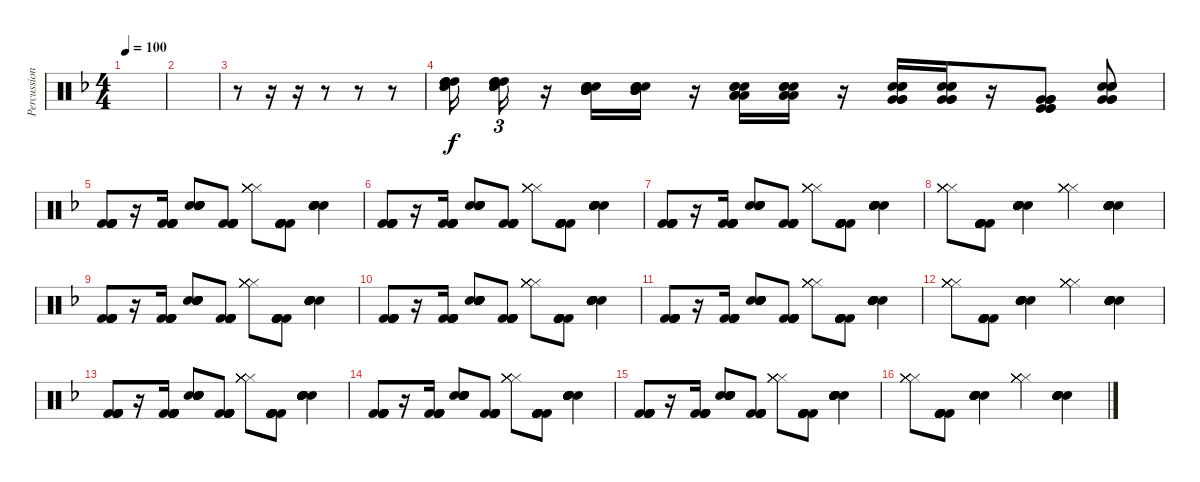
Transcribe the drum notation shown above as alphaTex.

\track ("Percussion" "Percussion") {instrument percussion}
\staff {score}
\articulation defaults
\ts (4 4)
\tempo 100
\clef neutral
\ks dminor
|
|
r.8 r.16 r.16 r.8 r.8 r.8 |
("Electric Snare (hit)" "Electric Snare (hit)" "Electric Snare (hit)" "High Tom (hit)" "High Tom (hit)" "High Tom (hit)").16 ("Electric Snare (hit)" "Electric Snare (hit)" "Electric Snare (hit)" "High Tom (hit)" "High Tom (hit)" "High Tom (hit)").16{tu (3 2)} r.16 ("Electric Snare (hit)" "Electric Snare (hit)" "Electric Snare (hit)" "Mid Tom (hit)" "Mid Tom (hit)" "Mid Tom (hit)").16 ("Electric Snare (hit)" "Electric Snare (hit)" "Electric Snare (hit)" "Mid Tom (hit)" "Mid Tom (hit)" "Mid Tom (hit)").16 r.16 ("Electric Snare (hit)" "Electric Snare (hit)" "Electric Snare (hit)" "Low Tom (hit)" "Low Tom (hit)" "Low Tom (hit)").16 ("Electric Snare (hit)" "Electric Snare (hit)" "Electric Snare (hit)" "Low Tom (hit)" "Low Tom (hit)" "Low Tom (hit)").16 r.16 ("Electric Snare (hit)" "Electric Snare (hit)" "Electric Snare (hit)" "Very Low Tom (hit)" "Very Low Tom (hit)" "Very Low Tom (hit)").16 ("Electric Snare (hit)" "Electric Snare (hit)" "Electric Snare (hit)" "Very Low Tom (hit)" "Very Low Tom (hit)" "Very Low Tom (hit)").16 r.16 ("Kick (hit)" "Kick (hit)" "Kick (hit)" "Very Low Tom (hit)" "Very Low Tom (hit)" "Very Low Tom (hit)").8 ("Snare (hit) 2" "Snare (hit) 2" "Snare (hit) 2" "Very Low Tom (hit)" "Very Low Tom (hit)" "Very Low Tom (hit)").8 |
("Kick (hit) 2" "Kick (hit) 2" "Kick (hit) 2" "Kick (hit) 2" "Kick (hit) 2" "Kick (hit) 2").8 r.16 ("Kick (hit) 2" "Kick (hit) 2" "Kick (hit) 2" "Kick (hit) 2" "Kick (hit) 2" "Kick (hit) 2").16 ("Electric Snare (hit)" "Electric Snare (hit)" "Electric Snare (hit)" "Electric Snare (hit)" "Electric Snare (hit)" "Electric Snare (hit)").8 ("Kick (hit) 2" "Kick (hit) 2" "Kick (hit) 2" "Kick (hit) 2" "Kick (hit) 2" "Kick (hit) 2").8 ("Hi-Hat (closed)" "Hi-Hat (closed)" "Hi-Hat (closed)" "Hi-Hat (closed)" "Hi-Hat (closed)" "Hi-Hat (closed)").8 ("Kick (hit) 2" "Kick (hit) 2" "Kick (hit) 2" "Kick (hit) 2" "Kick (hit) 2" "Kick (hit) 2").8 ("Electric Snare (hit)" "Electric Snare (hit)" "Electric Snare (hit)" "Electric Snare (hit)" "Electric Snare (hit)" "Electric Snare (hit)").4 |
("Kick (hit) 2" "Kick (hit) 2" "Kick (hit) 2" "Kick (hit) 2" "Kick (hit) 2" "Kick (hit) 2").8 r.16 ("Kick (hit) 2" "Kick (hit) 2" "Kick (hit) 2" "Kick (hit) 2" "Kick (hit) 2" "Kick (hit) 2").16 ("Electric Snare (hit)" "Electric Snare (hit)" "Electric Snare (hit)" "Electric Snare (hit)" "Electric Snare (hit)" "Electric Snare (hit)").8 ("Kick (hit) 2" "Kick (hit) 2" "Kick (hit) 2" "Kick (hit) 2" "Kick (hit) 2" "Kick (hit) 2").8 ("Hi-Hat (closed)" "Hi-Hat (closed)" "Hi-Hat (closed)" "Hi-Hat (closed)" "Hi-Hat (closed)" "Hi-Hat (closed)").8 ("Kick (hit) 2" "Kick (hit) 2" "Kick (hit) 2" "Kick (hit) 2" "Kick (hit) 2" "Kick (hit) 2").8 ("Electric Snare (hit)" "Electric Snare (hit)" "Electric Snare (hit)" "Electric Snare (hit)" "Electric Snare (hit)" "Electric Snare (hit)").4 |
("Kick (hit) 2" "Kick (hit) 2" "Kick (hit) 2" "Kick (hit) 2" "Kick (hit) 2" "Kick (hit) 2").8 r.16 ("Kick (hit) 2" "Kick (hit) 2" "Kick (hit) 2" "Kick (hit) 2" "Kick (hit) 2" "Kick (hit) 2").16 ("Electric Snare (hit)" "Electric Snare (hit)" "Electric Snare (hit)" "Electric Snare (hit)" "Electric Snare (hit)" "Electric Snare (hit)").8 ("Kick (hit) 2" "Kick (hit) 2" "Kick (hit) 2" "Kick (hit) 2" "Kick (hit) 2" "Kick (hit) 2").8 ("Hi-Hat (closed)" "Hi-Hat (closed)" "Hi-Hat (closed)" "Hi-Hat (closed)" "Hi-Hat (closed)" "Hi-Hat (closed)").8 ("Kick (hit) 2" "Kick (hit) 2" "Kick (hit) 2" "Kick (hit) 2" "Kick (hit) 2" "Kick (hit) 2").8 ("Electric Snare (hit)" "Electric Snare (hit)" "Electric Snare (hit)" "Electric Snare (hit)" "Electric Snare (hit)" "Electric Snare (hit)").4 |
("Hi-Hat (closed)" "Hi-Hat (closed)" "Hi-Hat (closed)" "Hi-Hat (closed)" "Hi-Hat (closed)" "Hi-Hat (closed)").8 ("Kick (hit) 2" "Kick (hit) 2" "Kick (hit) 2" "Kick (hit) 2" "Kick (hit) 2" "Kick (hit) 2").8 ("Electric Snare (hit)" "Electric Snare (hit)" "Electric Snare (hit)" "Electric Snare (hit)" "Electric Snare (hit)" "Electric Snare (hit)").4 ("Hi-Hat (closed)" "Hi-Hat (closed)" "Hi-Hat (closed)" "Hi-Hat (closed)" "Hi-Hat (closed)" "Hi-Hat (closed)").4 ("Electric Snare (hit)" "Electric Snare (hit)" "Electric Snare (hit)" "Electric Snare (hit)" "Electric Snare (hit)" "Electric Snare (hit)").4 |
("Kick (hit) 2" "Kick (hit) 2" "Kick (hit) 2" "Kick (hit) 2" "Kick (hit) 2" "Kick (hit) 2").8 r.16 ("Kick (hit) 2" "Kick (hit) 2" "Kick (hit) 2" "Kick (hit) 2" "Kick (hit) 2" "Kick (hit) 2").16 ("Electric Snare (hit)" "Electric Snare (hit)" "Electric Snare (hit)" "Electric Snare (hit)" "Electric Snare (hit)" "Electric Snare (hit)").8 ("Kick (hit) 2" "Kick (hit) 2" "Kick (hit) 2" "Kick (hit) 2" "Kick (hit) 2" "Kick (hit) 2").8 ("Hi-Hat (closed)" "Hi-Hat (closed)" "Hi-Hat (closed)" "Hi-Hat (closed)" "Hi-Hat (closed)" "Hi-Hat (closed)").8 ("Kick (hit) 2" "Kick (hit) 2" "Kick (hit) 2" "Kick (hit) 2" "Kick (hit) 2" "Kick (hit) 2").8 ("Electric Snare (hit)" "Electric Snare (hit)" "Electric Snare (hit)" "Electric Snare (hit)" "Electric Snare (hit)" "Electric Snare (hit)").4 |
("Kick (hit) 2" "Kick (hit) 2" "Kick (hit) 2" "Kick (hit) 2" "Kick (hit) 2" "Kick (hit) 2").8 r.16 ("Kick (hit) 2" "Kick (hit) 2" "Kick (hit) 2" "Kick (hit) 2" "Kick (hit) 2" "Kick (hit) 2").16 ("Electric Snare (hit)" "Electric Snare (hit)" "Electric Snare (hit)" "Electric Snare (hit)" "Electric Snare (hit)" "Electric Snare (hit)").8 ("Kick (hit) 2" "Kick (hit) 2" "Kick (hit) 2" "Kick (hit) 2" "Kick (hit) 2" "Kick (hit) 2").8 ("Hi-Hat (closed)" "Hi-Hat (closed)" "Hi-Hat (closed)" "Hi-Hat (closed)" "Hi-Hat (closed)" "Hi-Hat (closed)").8 ("Kick (hit) 2" "Kick (hit) 2" "Kick (hit) 2" "Kick (hit) 2" "Kick (hit) 2" "Kick (hit) 2").8 ("Electric Snare (hit)" "Electric Snare (hit)" "Electric Snare (hit)" "Electric Snare (hit)" "Electric Snare (hit)" "Electric Snare (hit)").4 |
("Kick (hit) 2" "Kick (hit) 2" "Kick (hit) 2" "Kick (hit) 2" "Kick (hit) 2" "Kick (hit) 2").8 r.16 ("Kick (hit) 2" "Kick (hit) 2" "Kick (hit) 2" "Kick (hit) 2" "Kick (hit) 2" "Kick (hit) 2").16 ("Electric Snare (hit)" "Electric Snare (hit)" "Electric Snare (hit)" "Electric Snare (hit)" "Electric Snare (hit)" "Electric Snare (hit)").8 ("Kick (hit) 2" "Kick (hit) 2" "Kick (hit) 2" "Kick (hit) 2" "Kick (hit) 2" "Kick (hit) 2").8 ("Hi-Hat (closed)" "Hi-Hat (closed)" "Hi-Hat (closed)" "Hi-Hat (closed)" "Hi-Hat (closed)" "Hi-Hat (closed)").8 ("Kick (hit) 2" "Kick (hit) 2" "Kick (hit) 2" "Kick (hit) 2" "Kick (hit) 2" "Kick (hit) 2").8 ("Electric Snare (hit)" "Electric Snare (hit)" "Electric Snare (hit)" "Electric Snare (hit)" "Electric Snare (hit)" "Electric Snare (hit)").4 |
("Hi-Hat (closed)" "Hi-Hat (closed)" "Hi-Hat (closed)" "Hi-Hat (closed)" "Hi-Hat (closed)" "Hi-Hat (closed)").8 ("Kick (hit) 2" "Kick (hit) 2" "Kick (hit) 2" "Kick (hit) 2" "Kick (hit) 2" "Kick (hit) 2").8 ("Electric Snare (hit)" "Electric Snare (hit)" "Electric Snare (hit)" "Electric Snare (hit)" "Electric Snare (hit)" "Electric Snare (hit)").4 ("Hi-Hat (closed)" "Hi-Hat (closed)" "Hi-Hat (closed)" "Hi-Hat (closed)" "Hi-Hat (closed)" "Hi-Hat (closed)").4 ("Electric Snare (hit)" "Electric Snare (hit)" "Electric Snare (hit)" "Electric Snare (hit)" "Electric Snare (hit)" "Electric Snare (hit)").4 |
("Kick (hit) 2" "Kick (hit) 2" "Kick (hit) 2" "Kick (hit) 2" "Kick (hit) 2" "Kick (hit) 2").8 r.16 ("Kick (hit) 2" "Kick (hit) 2" "Kick (hit) 2" "Kick (hit) 2" "Kick (hit) 2" "Kick (hit) 2").16 ("Electric Snare (hit)" "Electric Snare (hit)" "Electric Snare (hit)" "Electric Snare (hit)" "Electric Snare (hit)" "Electric Snare (hit)").8 ("Kick (hit) 2" "Kick (hit) 2" "Kick (hit) 2" "Kick (hit) 2" "Kick (hit) 2" "Kick (hit) 2").8 ("Hi-Hat (closed)" "Hi-Hat (closed)" "Hi-Hat (closed)" "Hi-Hat (closed)" "Hi-Hat (closed)" "Hi-Hat (closed)").8 ("Kick (hit) 2" "Kick (hit) 2" "Kick (hit) 2" "Kick (hit) 2" "Kick (hit) 2" "Kick (hit) 2").8 ("Electric Snare (hit)" "Electric Snare (hit)" "Electric Snare (hit)" "Electric Snare (hit)" "Electric Snare (hit)" "Electric Snare (hit)").4 |
("Kick (hit) 2" "Kick (hit) 2" "Kick (hit) 2" "Kick (hit) 2" "Kick (hit) 2" "Kick (hit) 2").8 r.16 ("Kick (hit) 2" "Kick (hit) 2" "Kick (hit) 2" "Kick (hit) 2" "Kick (hit) 2" "Kick (hit) 2").16 ("Electric Snare (hit)" "Electric Snare (hit)" "Electric Snare (hit)" "Electric Snare (hit)" "Electric Snare (hit)" "Electric Snare (hit)").8 ("Kick (hit) 2" "Kick (hit) 2" "Kick (hit) 2" "Kick (hit) 2" "Kick (hit) 2" "Kick (hit) 2").8 ("Hi-Hat (closed)" "Hi-Hat (closed)" "Hi-Hat (closed)" "Hi-Hat (closed)" "Hi-Hat (closed)" "Hi-Hat (closed)").8 ("Kick (hit) 2" "Kick (hit) 2" "Kick (hit) 2" "Kick (hit) 2" "Kick (hit) 2" "Kick (hit) 2").8 ("Electric Snare (hit)" "Electric Snare (hit)" "Electric Snare (hit)" "Electric Snare (hit)" "Electric Snare (hit)" "Electric Snare (hit)").4 |
("Kick (hit) 2" "Kick (hit) 2" "Kick (hit) 2" "Kick (hit) 2" "Kick (hit) 2" "Kick (hit) 2").8 r.16 ("Kick (hit) 2" "Kick (hit) 2" "Kick (hit) 2" "Kick (hit) 2" "Kick (hit) 2" "Kick (hit) 2").16 ("Electric Snare (hit)" "Electric Snare (hit)" "Electric Snare (hit)" "Electric Snare (hit)" "Electric Snare (hit)" "Electric Snare (hit)").8 ("Kick (hit) 2" "Kick (hit) 2" "Kick (hit) 2" "Kick (hit) 2" "Kick (hit) 2" "Kick (hit) 2").8 ("Hi-Hat (closed)" "Hi-Hat (closed)" "Hi-Hat (closed)" "Hi-Hat (closed)" "Hi-Hat (closed)" "Hi-Hat (closed)").8 ("Kick (hit) 2" "Kick (hit) 2" "Kick (hit) 2" "Kick (hit) 2" "Kick (hit) 2" "Kick (hit) 2").8 ("Electric Snare (hit)" "Electric Snare (hit)" "Electric Snare (hit)" "Electric Snare (hit)" "Electric Snare (hit)" "Electric Snare (hit)").4 |
("Hi-Hat (closed)" "Hi-Hat (closed)" "Hi-Hat (closed)" "Hi-Hat (closed)" "Hi-Hat (closed)" "Hi-Hat (closed)").8 ("Kick (hit) 2" "Kick (hit) 2" "Kick (hit) 2" "Kick (hit) 2" "Kick (hit) 2" "Kick (hit) 2").8 ("Electric Snare (hit)" "Electric Snare (hit)" "Electric Snare (hit)" "Electric Snare (hit)" "Electric Snare (hit)" "Electric Snare (hit)").4 ("Hi-Hat (closed)" "Hi-Hat (closed)" "Hi-Hat (closed)" "Hi-Hat (closed)" "Hi-Hat (closed)" "Hi-Hat (closed)").4 ("Electric Snare (hit)" "Electric Snare (hit)" "Electric Snare (hit)" "Electric Snare (hit)" "Electric Snare (hit)" "Electric Snare (hit)").4
